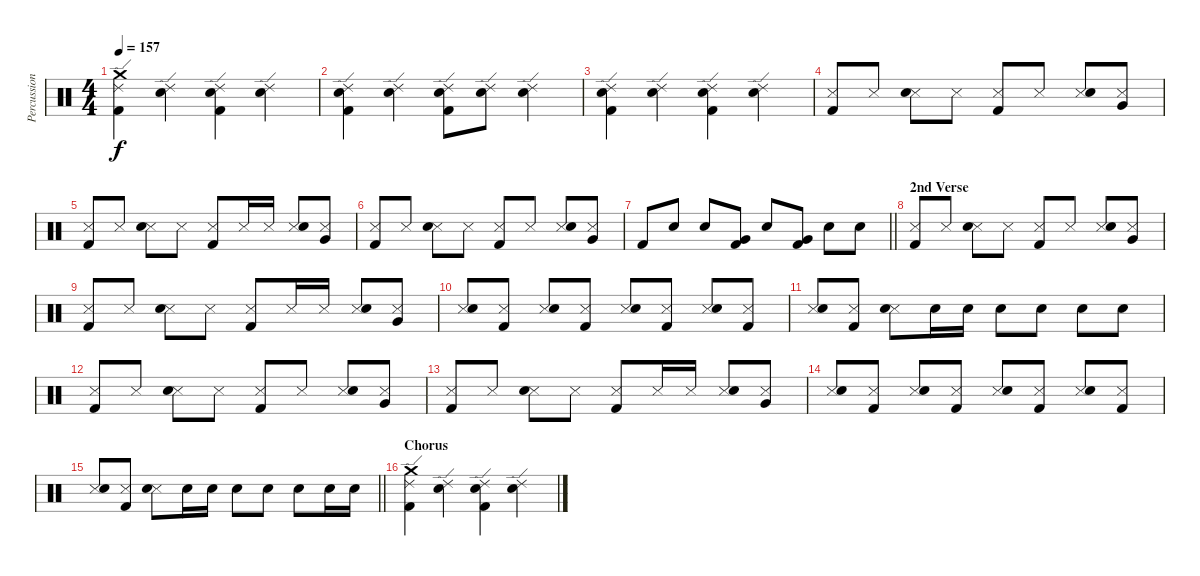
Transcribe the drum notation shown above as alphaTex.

\track ("Percussion" "Percussion") {instrument percussion}
\staff {score}
\articulation defaults
\ts (4 4)
\tempo 157
\clef neutral
\ks c
("Crash medium (hit)" "Ride (edge) 2" "Kick (hit) 2").4{dy f} ("Ride (edge) 2" "Snare (hit) 2").4 ("Ride (edge) 2" "Snare (hit) 2" "Kick (hit) 2").4 ("Ride (edge) 2" "Snare (hit) 2").4 |
("Ride (edge) 2" "Snare (hit) 2" "Kick (hit) 2").4 ("Ride (edge) 2" "Snare (hit) 2").4 ("Ride (edge) 2" "Snare (hit) 2" "Kick (hit) 2").8 ("Ride (edge) 2" "Snare (hit) 2").8 ("Ride (edge) 2" "Snare (hit) 2").4 |
("Ride (edge) 2" "Snare (hit) 2" "Kick (hit) 2").4 ("Ride (edge) 2" "Snare (hit) 2").4 ("Ride (edge) 2" "Snare (hit) 2" "Kick (hit) 2").4 ("Ride (edge) 2" "Snare (hit) 2").4 |
("Metronome (hit)" "Kick (hit) 2").8 "Metronome (hit)".8 ("Metronome (hit)" "Snare (hit) 2").8 "Metronome (hit)".8 ("Metronome (hit)" "Kick (hit) 2").8 "Metronome (hit)".8 ("Metronome (hit)" "Snare (hit) 2").8 ("Metronome (hit)" "Very Low Tom (hit)").8 |
("Metronome (hit)" "Kick (hit) 2").8 "Metronome (hit)".8 ("Metronome (hit)" "Snare (hit) 2").8 "Metronome (hit)".8 ("Metronome (hit)" "Kick (hit) 2").8 "Metronome (hit)".16 "Metronome (hit)".16 ("Metronome (hit)" "Snare (hit) 2").8 ("Metronome (hit)" "Very Low Tom (hit)").8 |
("Metronome (hit)" "Kick (hit) 2").8 "Metronome (hit)".8 ("Metronome (hit)" "Snare (hit) 2").8 "Metronome (hit)".8 ("Metronome (hit)" "Kick (hit) 2").8 "Metronome (hit)".8 ("Metronome (hit)" "Snare (hit) 2").8 ("Metronome (hit)" "Very Low Tom (hit)").8 |
\barLineRight lightlight "Kick (hit) 2".8 "Snare (hit) 2".8 "Snare (hit) 2".8
("Very Low Tom (hit)" "Kick (hit) 2").8 "Snare (hit) 2".8 ("Very Low Tom (hit)" "Kick (hit) 2").8 "Snare (hit) 2".8 "Snare (hit) 2".8 |
\section ("" "2nd Verse")
("Metronome (hit)" "Kick (hit) 2").8 "Metronome (hit)".8 ("Metronome (hit)" "Snare (hit) 2").8 "Metronome (hit)".8 ("Metronome (hit)" "Kick (hit) 2").8 "Metronome (hit)".8 ("Metronome (hit)" "Snare (hit) 2").8 ("Metronome (hit)" "Very Low Tom (hit)").8 |
("Metronome (hit)" "Kick (hit) 2").8 "Metronome (hit)".8 ("Metronome (hit)" "Snare (hit) 2").8 "Metronome (hit)".8 ("Metronome (hit)" "Kick (hit) 2").8 "Metronome (hit)".16 "Metronome (hit)".16 ("Metronome (hit)" "Snare (hit) 2").8 ("Metronome (hit)" "Very Low Tom (hit)").8 |
("Metronome (hit)" "Snare (hit) 2").8 ("Metronome (hit)" "Kick (hit) 2").8 ("Metronome (hit)" "Snare (hit) 2").8 ("Metronome (hit)" "Kick (hit) 2").8 ("Metronome (hit)" "Snare (hit) 2").8 ("Metronome (hit)" "Kick (hit) 2").8 ("Metronome (hit)" "Snare (hit) 2").8 ("Metronome (hit)" "Kick (hit) 2").8 |
("Metronome (hit)" "Snare (hit) 2").8 ("Metronome (hit)" "Kick (hit) 2").8 ("Metronome (hit)" "Snare (hit) 2").8 "Snare (hit) 2".16 "Snare (hit) 2".16 "Snare (hit) 2".8 "Snare (hit) 2".8 "Snare (hit) 2".8 "Snare (hit) 2".8 |
("Metronome (hit)" "Kick (hit) 2").8 "Metronome (hit)".8 ("Metronome (hit)" "Snare (hit) 2").8 "Metronome (hit)".8 ("Metronome (hit)" "Kick (hit) 2").8 "Metronome (hit)".8 ("Metronome (hit)" "Snare (hit) 2").8 ("Metronome (hit)" "Very Low Tom (hit)").8 |
("Metronome (hit)" "Kick (hit) 2").8 "Metronome (hit)".8 ("Metronome (hit)" "Snare (hit) 2").8 "Metronome (hit)".8 ("Metronome (hit)" "Kick (hit) 2").8 "Metronome (hit)".16 "Metronome (hit)".16 ("Metronome (hit)" "Snare (hit) 2").8 ("Metronome (hit)" "Very Low Tom (hit)").8 |
("Metronome (hit)" "Snare (hit) 2").8 ("Metronome (hit)" "Kick (hit) 2").8 ("Metronome (hit)" "Snare (hit) 2").8 ("Metronome (hit)" "Kick (hit) 2").8 ("Metronome (hit)" "Snare (hit) 2").8 ("Metronome (hit)" "Kick (hit) 2").8 ("Metronome (hit)" "Snare (hit) 2").8 ("Metronome (hit)" "Kick (hit) 2").8 |
\barLineRight lightlight
("Metronome (hit)" "Snare (hit) 2").8 ("Metronome (hit)" "Kick (hit) 2").8 ("Metronome (hit)" "Snare (hit) 2").8 "Snare (hit) 2".16 "Snare (hit) 2".16 "Snare (hit) 2".8 "Snare (hit) 2".8 "Snare (hit) 2".8 "Snare (hit) 2".16 "Snare (hit) 2".16 |
\section ("" "Chorus")
("Crash medium (hit)" "Ride (edge) 2" "Kick (hit) 2").4 ("Ride (edge) 2" "Snare (hit) 2").4 ("Ride (edge) 2" "Snare (hit) 2" "Kick (hit) 2").4 ("Ride (edge) 2" "Snare (hit) 2").4
